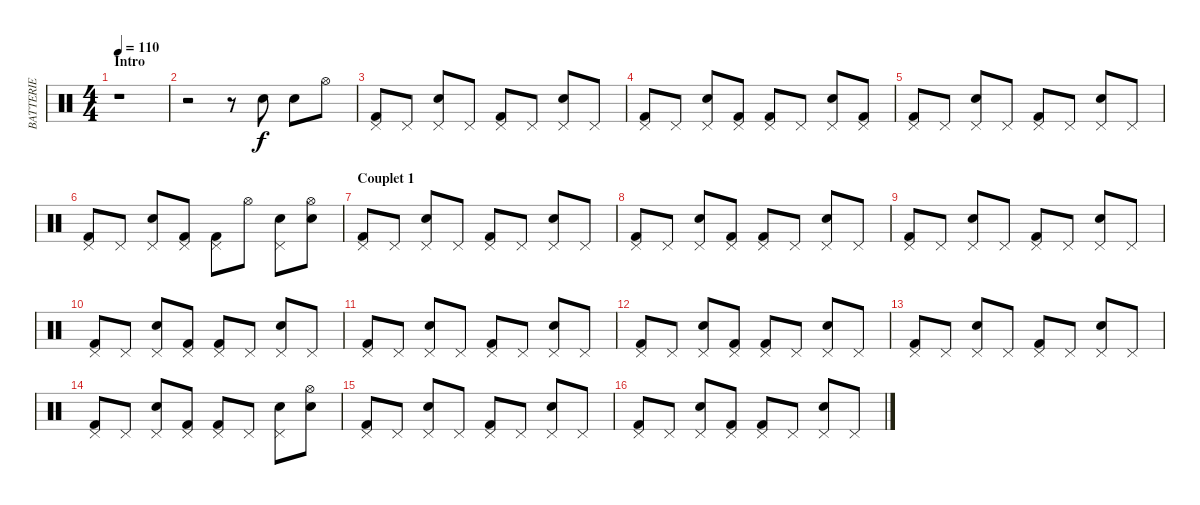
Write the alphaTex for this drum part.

\track ("BATTERIE" "BATTERIE") {instrument percussion}
\staff {score}
\articulation defaults
\ts (4 4)
\section ("" "Intro")
\tempo 110
\clef neutral
\ks c
r.1{dy f} |
r.2 r.8 "Snare (hit) 2".8 "Snare (hit) 2".8 "Hi-Hat (open)".8 |
("Pedal Hi-Hat (hit)" "Kick (hit) 2").8 "Pedal Hi-Hat (hit)".8 ("Pedal Hi-Hat (hit)" "Snare (hit) 2").8 "Pedal Hi-Hat (hit)".8 ("Pedal Hi-Hat (hit)" "Kick (hit) 2").8 "Pedal Hi-Hat (hit)".8 ("Pedal Hi-Hat (hit)" "Snare (hit) 2").8 "Pedal Hi-Hat (hit)".8 |
("Pedal Hi-Hat (hit)" "Kick (hit) 2").8 "Pedal Hi-Hat (hit)".8 ("Pedal Hi-Hat (hit)" "Snare (hit) 2").8 ("Pedal Hi-Hat (hit)" "Kick (hit) 2").8 ("Pedal Hi-Hat (hit)" "Kick (hit) 2").8 "Pedal Hi-Hat (hit)".8 ("Pedal Hi-Hat (hit)" "Snare (hit) 2").8 ("Pedal Hi-Hat (hit)" "Kick (hit) 2").8 |
("Pedal Hi-Hat (hit)" "Kick (hit) 2").8 "Pedal Hi-Hat (hit)".8 ("Pedal Hi-Hat (hit)" "Snare (hit) 2").8 "Pedal Hi-Hat (hit)".8 ("Pedal Hi-Hat (hit)" "Kick (hit) 2").8 "Pedal Hi-Hat (hit)".8 ("Pedal Hi-Hat (hit)" "Snare (hit) 2").8 "Pedal Hi-Hat (hit)".8 |
("Pedal Hi-Hat (hit)" "Kick (hit) 2").8 "Pedal Hi-Hat (hit)".8 ("Pedal Hi-Hat (hit)" "Snare (hit) 2").8 ("Pedal Hi-Hat (hit)" "Kick (hit) 2").8 ("Pedal Hi-Hat (hit)" "Kick (hit) 2").8 "Hi-Hat (open)".8 ("Pedal Hi-Hat (hit)" "Snare (hit) 2").8 ("Hi-Hat (open)" "Snare (hit) 2").8 |
\section ("" "Couplet 1")
("Pedal Hi-Hat (hit)" "Kick (hit) 2").8 "Pedal Hi-Hat (hit)".8 ("Pedal Hi-Hat (hit)" "Snare (hit) 2").8 "Pedal Hi-Hat (hit)".8 ("Pedal Hi-Hat (hit)" "Kick (hit) 2").8 "Pedal Hi-Hat (hit)".8 ("Pedal Hi-Hat (hit)" "Snare (hit) 2").8 "Pedal Hi-Hat (hit)".8 |
("Pedal Hi-Hat (hit)" "Kick (hit) 2").8 "Pedal Hi-Hat (hit)".8 ("Pedal Hi-Hat (hit)" "Snare (hit) 2").8 ("Pedal Hi-Hat (hit)" "Kick (hit) 2").8 ("Pedal Hi-Hat (hit)" "Kick (hit) 2").8 "Pedal Hi-Hat (hit)".8 ("Pedal Hi-Hat (hit)" "Snare (hit) 2").8 "Pedal Hi-Hat (hit)".8 |
("Pedal Hi-Hat (hit)" "Kick (hit) 2").8 "Pedal Hi-Hat (hit)".8 ("Pedal Hi-Hat (hit)" "Snare (hit) 2").8 "Pedal Hi-Hat (hit)".8 ("Pedal Hi-Hat (hit)" "Kick (hit) 2").8 "Pedal Hi-Hat (hit)".8 ("Pedal Hi-Hat (hit)" "Snare (hit) 2").8 "Pedal Hi-Hat (hit)".8 |
("Pedal Hi-Hat (hit)" "Kick (hit) 2").8 "Pedal Hi-Hat (hit)".8 ("Pedal Hi-Hat (hit)" "Snare (hit) 2").8 ("Pedal Hi-Hat (hit)" "Kick (hit) 2").8 ("Pedal Hi-Hat (hit)" "Kick (hit) 2").8 "Pedal Hi-Hat (hit)".8 ("Pedal Hi-Hat (hit)" "Snare (hit) 2").8 "Pedal Hi-Hat (hit)".8 |
("Pedal Hi-Hat (hit)" "Kick (hit) 2").8 "Pedal Hi-Hat (hit)".8 ("Pedal Hi-Hat (hit)" "Snare (hit) 2").8 "Pedal Hi-Hat (hit)".8 ("Pedal Hi-Hat (hit)" "Kick (hit) 2").8 "Pedal Hi-Hat (hit)".8 ("Pedal Hi-Hat (hit)" "Snare (hit) 2").8 "Pedal Hi-Hat (hit)".8 |
("Pedal Hi-Hat (hit)" "Kick (hit) 2").8 "Pedal Hi-Hat (hit)".8 ("Pedal Hi-Hat (hit)" "Snare (hit) 2").8 ("Pedal Hi-Hat (hit)" "Kick (hit) 2").8 ("Pedal Hi-Hat (hit)" "Kick (hit) 2").8 "Pedal Hi-Hat (hit)".8 ("Pedal Hi-Hat (hit)" "Snare (hit) 2").8 "Pedal Hi-Hat (hit)".8 |
("Pedal Hi-Hat (hit)" "Kick (hit) 2").8 "Pedal Hi-Hat (hit)".8 ("Pedal Hi-Hat (hit)" "Snare (hit) 2").8 "Pedal Hi-Hat (hit)".8 ("Pedal Hi-Hat (hit)" "Kick (hit) 2").8 "Pedal Hi-Hat (hit)".8 ("Pedal Hi-Hat (hit)" "Snare (hit) 2").8 "Pedal Hi-Hat (hit)".8 |
("Pedal Hi-Hat (hit)" "Kick (hit) 2").8 "Pedal Hi-Hat (hit)".8 ("Pedal Hi-Hat (hit)" "Snare (hit) 2").8 ("Pedal Hi-Hat (hit)" "Kick (hit) 2").8 ("Pedal Hi-Hat (hit)" "Kick (hit) 2").8 "Pedal Hi-Hat (hit)".8 ("Pedal Hi-Hat (hit)" "Snare (hit) 2").8 ("Hi-Hat (open)" "Snare (hit) 2").8 |
("Pedal Hi-Hat (hit)" "Kick (hit) 2").8 "Pedal Hi-Hat (hit)".8 ("Pedal Hi-Hat (hit)" "Snare (hit) 2").8 "Pedal Hi-Hat (hit)".8 ("Pedal Hi-Hat (hit)" "Kick (hit) 2").8 "Pedal Hi-Hat (hit)".8 ("Pedal Hi-Hat (hit)" "Snare (hit) 2").8 "Pedal Hi-Hat (hit)".8 |
("Pedal Hi-Hat (hit)" "Kick (hit) 2").8 "Pedal Hi-Hat (hit)".8 ("Pedal Hi-Hat (hit)" "Snare (hit) 2").8 ("Pedal Hi-Hat (hit)" "Kick (hit) 2").8 ("Pedal Hi-Hat (hit)" "Kick (hit) 2").8 "Pedal Hi-Hat (hit)".8 ("Pedal Hi-Hat (hit)" "Snare (hit) 2").8 "Pedal Hi-Hat (hit)".8
